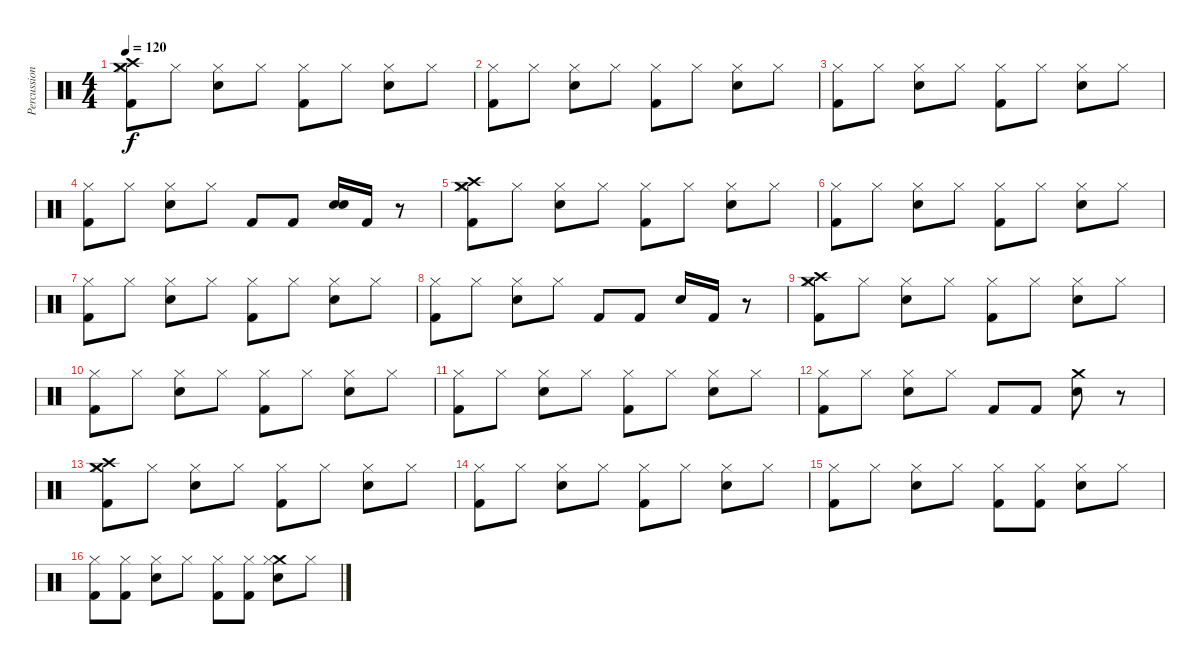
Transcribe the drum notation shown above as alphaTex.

\track ("Percussion" "Percussion") {instrument percussion}
\staff {score}
\articulation defaults
\ts (4 4)
\tempo 120
\clef neutral
\ks c
("Crash high (hit)" "Crash medium (hit)" "Kick (hit) 2" "Hi-Hat (closed)").8{dy f} "Hi-Hat (closed)".8 ("Electric Snare (hit)" "Hi-Hat (closed)").8 "Hi-Hat (closed)".8 ("Kick (hit) 2" "Hi-Hat (closed)").8 "Hi-Hat (closed)".8 ("Electric Snare (hit)" "Hi-Hat (closed)").8 "Hi-Hat (closed)".8 |
("Kick (hit) 2" "Hi-Hat (closed)").8 "Hi-Hat (closed)".8 ("Electric Snare (hit)" "Hi-Hat (closed)").8 "Hi-Hat (closed)".8 ("Kick (hit) 2" "Hi-Hat (closed)").8 "Hi-Hat (closed)".8 ("Electric Snare (hit)" "Hi-Hat (closed)").8 "Hi-Hat (closed)".8 |
("Kick (hit) 2" "Hi-Hat (closed)").8 "Hi-Hat (closed)".8 ("Electric Snare (hit)" "Hi-Hat (closed)").8 "Hi-Hat (closed)".8 ("Kick (hit) 2" "Hi-Hat (closed)").8 "Hi-Hat (closed)".8 ("Electric Snare (hit)" "Hi-Hat (closed)").8 "Hi-Hat (closed)".8 |
("Kick (hit) 2" "Hi-Hat (closed)").8 "Hi-Hat (closed)".8 ("Electric Snare (hit)" "Hi-Hat (closed)").8 "Hi-Hat (closed)".8 "Kick (hit) 2".8 "Kick (hit) 2".8 ("Electric Snare (hit)" "Electric Snare (hit)").16 "Kick (hit) 2".16 r.8 |
("Crash high (hit)" "Crash medium (hit)" "Kick (hit) 2" "Hi-Hat (closed)").8 "Hi-Hat (closed)".8 ("Electric Snare (hit)" "Hi-Hat (closed)").8 "Hi-Hat (closed)".8 ("Kick (hit) 2" "Hi-Hat (closed)").8 "Hi-Hat (closed)".8 ("Electric Snare (hit)" "Hi-Hat (closed)").8 "Hi-Hat (closed)".8 |
("Kick (hit) 2" "Hi-Hat (closed)").8 "Hi-Hat (closed)".8 ("Electric Snare (hit)" "Hi-Hat (closed)").8 "Hi-Hat (closed)".8 ("Kick (hit) 2" "Hi-Hat (closed)").8 "Hi-Hat (closed)".8 ("Electric Snare (hit)" "Hi-Hat (closed)").8 "Hi-Hat (closed)".8 |
("Kick (hit) 2" "Hi-Hat (closed)").8 "Hi-Hat (closed)".8 ("Electric Snare (hit)" "Hi-Hat (closed)").8 "Hi-Hat (closed)".8 ("Kick (hit) 2" "Hi-Hat (closed)").8 "Hi-Hat (closed)".8 ("Electric Snare (hit)" "Hi-Hat (closed)").8 "Hi-Hat (closed)".8 |
("Kick (hit) 2" "Hi-Hat (closed)").8 "Hi-Hat (closed)".8 ("Electric Snare (hit)" "Hi-Hat (closed)").8 "Hi-Hat (closed)".8 "Kick (hit) 2".8 "Kick (hit) 2".8 "Electric Snare (hit)".16 "Kick (hit) 2".16 r.8 |
("Crash high (hit)" "Crash medium (hit)" "Kick (hit) 2" "Hi-Hat (closed)").8 "Hi-Hat (closed)".8 ("Electric Snare (hit)" "Hi-Hat (closed)").8 "Hi-Hat (closed)".8 ("Kick (hit) 2" "Hi-Hat (closed)").8 "Hi-Hat (closed)".8 ("Electric Snare (hit)" "Hi-Hat (closed)").8 "Hi-Hat (closed)".8 |
("Kick (hit) 2" "Hi-Hat (closed)").8 "Hi-Hat (closed)".8 ("Electric Snare (hit)" "Hi-Hat (closed)").8 "Hi-Hat (closed)".8 ("Kick (hit) 2" "Hi-Hat (closed)").8 "Hi-Hat (closed)".8 ("Electric Snare (hit)" "Hi-Hat (closed)").8 "Hi-Hat (closed)".8 |
("Kick (hit) 2" "Hi-Hat (closed)").8 "Hi-Hat (closed)".8 ("Electric Snare (hit)" "Hi-Hat (closed)").8 "Hi-Hat (closed)".8 ("Kick (hit) 2" "Hi-Hat (closed)").8 "Hi-Hat (closed)".8 ("Electric Snare (hit)" "Hi-Hat (closed)").8 "Hi-Hat (closed)".8 |
("Kick (hit) 2" "Hi-Hat (closed)").8 "Hi-Hat (closed)".8 ("Electric Snare (hit)" "Hi-Hat (closed)").8 "Hi-Hat (closed)".8 "Kick (hit) 2".8 "Kick (hit) 2".8 ("Crash medium (hit)" "Electric Snare (hit)").8 r.8 |
("Crash high (hit)" "Crash medium (hit)" "Kick (hit) 2" "Hi-Hat (closed)").8 "Hi-Hat (closed)".8 ("Electric Snare (hit)" "Hi-Hat (closed)").8 "Hi-Hat (closed)".8 ("Kick (hit) 2" "Hi-Hat (closed)").8 "Hi-Hat (closed)".8 ("Electric Snare (hit)" "Hi-Hat (closed)").8 "Hi-Hat (closed)".8 |
("Kick (hit) 2" "Hi-Hat (closed)").8 "Hi-Hat (closed)".8 ("Electric Snare (hit)" "Hi-Hat (closed)").8 "Hi-Hat (closed)".8 ("Kick (hit) 2" "Hi-Hat (closed)").8 "Hi-Hat (closed)".8 ("Electric Snare (hit)" "Hi-Hat (closed)").8 "Hi-Hat (closed)".8 |
("Kick (hit) 2" "Hi-Hat (closed)").8 "Hi-Hat (closed)".8 ("Electric Snare (hit)" "Hi-Hat (closed)").8 "Hi-Hat (closed)".8 ("Kick (hit) 2" "Hi-Hat (closed)").8 ("Kick (hit) 2" "Hi-Hat (closed)").8 ("Electric Snare (hit)" "Hi-Hat (closed)").8 "Hi-Hat (closed)".8 |
("Kick (hit) 2" "Hi-Hat (closed)").8 ("Kick (hit) 2" "Hi-Hat (closed)").8 ("Electric Snare (hit)" "Hi-Hat (closed)").8 "Hi-Hat (closed)".8 ("Kick (hit) 2" "Hi-Hat (closed)").8 ("Kick (hit) 2" "Hi-Hat (closed)").8 ("Crash medium (hit)" "Electric Snare (hit)" "Hi-Hat (closed)").8 "Hi-Hat (closed)".8
